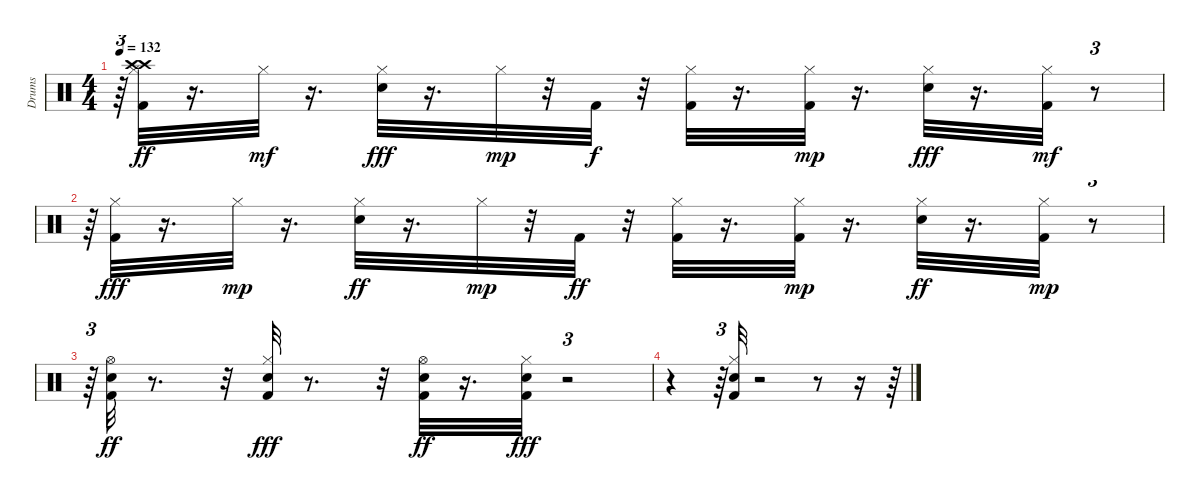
\track ("Drums" "Drums") {instrument percussion}
\staff {score}
\articulation defaults
\ts (4 4)
\tempo 132
\clef neutral
\ks c
r.64{tu (3 2) dy ff} ("Kick (hit) 2" "Hi-Hat (closed)" "Crash high (hit)" "Crash high (hit)").32 r.16{d} "Hi-Hat (closed)".32{dy mf} r.16{d} ("Snare (hit) 2" "Hi-Hat (closed)").32{dy fff} r.16{d} "Hi-Hat (closed)".32{dy mp} r.32 "Kick (hit) 2".32{dy f} r.32 ("Kick (hit) 2" "Hi-Hat (closed)").32 r.16{d} ("Kick (hit) 2" "Hi-Hat (closed)").32{dy mp} r.16{d} ("Snare (hit) 2" "Hi-Hat (closed)").32{dy fff} r.16{d} ("Kick (hit) 2" "Hi-Hat (closed)").32{dy mf} r.8{tu (3 2)} |
r.64{tu (3 2)} ("Kick (hit) 2" "Hi-Hat (closed)").32{dy fff} r.16{d} "Hi-Hat (closed)".32{dy mp} r.16{d} ("Snare (hit) 2" "Hi-Hat (closed)").32{dy ff} r.16{d} "Hi-Hat (closed)".32{dy mp} r.32 "Kick (hit) 2".32{dy ff} r.32 ("Kick (hit) 2" "Hi-Hat (closed)").32 r.16{d} ("Kick (hit) 2" "Hi-Hat (closed)").32{dy mp} r.16{d} ("Snare (hit) 2" "Hi-Hat (closed)").32{dy ff} r.16{d} ("Kick (hit) 2" "Hi-Hat (closed)").32{dy mp} r.8{tu (3 2)} |
r.64{tu (3 2)} ("Kick (hit) 2" "Snare (hit) 2" "Hi-Hat (open)").32{dy ff} r.8{d} r.32 ("Kick (hit) 2" "Snare (hit) 2" "Hi-Hat (closed)").32{dy fff} r.8{d} r.32 ("Kick (hit) 2" "Snare (hit) 2" "Hi-Hat (open)").32{dy ff} r.16{d} ("Kick (hit) 2" "Snare (hit) 2" "Hi-Hat (closed)").32{dy fff} r.2{tu (3 2)} |
r.4 r.64{tu (3 2)} ("Kick (hit) 2" "Snare (hit) 2" "Hi-Hat (closed)").32 r.2 r.8 r.16 r.64
